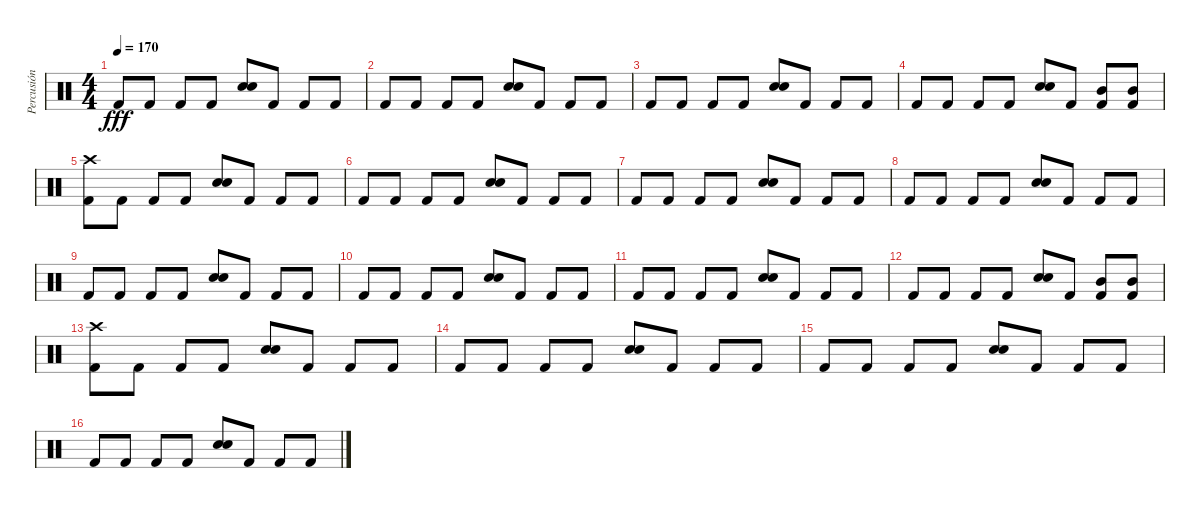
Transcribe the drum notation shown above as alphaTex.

\track ("Percusión" "Percusión") {instrument percussion}
\staff {score}
\articulation defaults
\ts (4 4)
\tempo 170
\clef neutral
\ks c "Kick (hit) 2".8{dy fff} "Kick (hit) 2".8 "Kick (hit) 2".8 "Kick (hit) 2".8
("Snare (hit) 2" "Electric Snare (hit)").8 "Kick (hit) 2".8 "Kick (hit) 2".8 "Kick (hit) 2".8 |
"Kick (hit) 2".8 "Kick (hit) 2".8 "Kick (hit) 2".8 "Kick (hit) 2".8 ("Snare (hit) 2" "Electric Snare (hit)").8 "Kick (hit) 2".8 "Kick (hit) 2".8 "Kick (hit) 2".8 |
"Kick (hit) 2".8 "Kick (hit) 2".8 "Kick (hit) 2".8 "Kick (hit) 2".8 ("Snare (hit) 2" "Electric Snare (hit)").8 "Kick (hit) 2".8 "Kick (hit) 2".8 "Kick (hit) 2".8 |
"Kick (hit) 2".8 "Kick (hit) 2".8 "Kick (hit) 2".8 "Kick (hit) 2".8 ("Snare (hit) 2" "Electric Snare (hit)").8 "Kick (hit) 2".8 ("Kick (hit) 2" "Mid Tom (hit)").8 ("Kick (hit) 2" "Mid Tom (hit)").8 |
("Kick (hit) 2" "Crash high (hit)").8 "Kick (hit) 2".8 "Kick (hit) 2".8 "Kick (hit) 2".8 ("Snare (hit) 2" "Electric Snare (hit)").8 "Kick (hit) 2".8 "Kick (hit) 2".8 "Kick (hit) 2".8 |
"Kick (hit) 2".8 "Kick (hit) 2".8 "Kick (hit) 2".8 "Kick (hit) 2".8 ("Snare (hit) 2" "Electric Snare (hit)").8 "Kick (hit) 2".8 "Kick (hit) 2".8 "Kick (hit) 2".8 |
"Kick (hit) 2".8 "Kick (hit) 2".8 "Kick (hit) 2".8 "Kick (hit) 2".8 ("Snare (hit) 2" "Electric Snare (hit)").8 "Kick (hit) 2".8 "Kick (hit) 2".8 "Kick (hit) 2".8 |
"Kick (hit) 2".8 "Kick (hit) 2".8 "Kick (hit) 2".8 "Kick (hit) 2".8 ("Snare (hit) 2" "Electric Snare (hit)").8 "Kick (hit) 2".8 "Kick (hit) 2".8 "Kick (hit) 2".8 |
"Kick (hit) 2".8 "Kick (hit) 2".8 "Kick (hit) 2".8 "Kick (hit) 2".8 ("Snare (hit) 2" "Electric Snare (hit)").8 "Kick (hit) 2".8 "Kick (hit) 2".8 "Kick (hit) 2".8 |
"Kick (hit) 2".8 "Kick (hit) 2".8 "Kick (hit) 2".8 "Kick (hit) 2".8 ("Snare (hit) 2" "Electric Snare (hit)").8 "Kick (hit) 2".8 "Kick (hit) 2".8 "Kick (hit) 2".8 |
"Kick (hit) 2".8 "Kick (hit) 2".8 "Kick (hit) 2".8 "Kick (hit) 2".8 ("Snare (hit) 2" "Electric Snare (hit)").8 "Kick (hit) 2".8 "Kick (hit) 2".8 "Kick (hit) 2".8 |
"Kick (hit) 2".8 "Kick (hit) 2".8 "Kick (hit) 2".8 "Kick (hit) 2".8 ("Snare (hit) 2" "Electric Snare (hit)").8 "Kick (hit) 2".8 ("Kick (hit) 2" "Mid Tom (hit)").8 ("Kick (hit) 2" "Mid Tom (hit)").8 |
("Kick (hit) 2" "Crash high (hit)").8 "Kick (hit) 2".8 "Kick (hit) 2".8 "Kick (hit) 2".8 ("Snare (hit) 2" "Electric Snare (hit)").8 "Kick (hit) 2".8 "Kick (hit) 2".8 "Kick (hit) 2".8 |
"Kick (hit) 2".8 "Kick (hit) 2".8 "Kick (hit) 2".8 "Kick (hit) 2".8 ("Snare (hit) 2" "Electric Snare (hit)").8 "Kick (hit) 2".8 "Kick (hit) 2".8 "Kick (hit) 2".8 |
"Kick (hit) 2".8 "Kick (hit) 2".8 "Kick (hit) 2".8 "Kick (hit) 2".8 ("Snare (hit) 2" "Electric Snare (hit)").8 "Kick (hit) 2".8 "Kick (hit) 2".8 "Kick (hit) 2".8 |
"Kick (hit) 2".8 "Kick (hit) 2".8 "Kick (hit) 2".8 "Kick (hit) 2".8 ("Snare (hit) 2" "Electric Snare (hit)").8 "Kick (hit) 2".8 "Kick (hit) 2".8 "Kick (hit) 2".8
